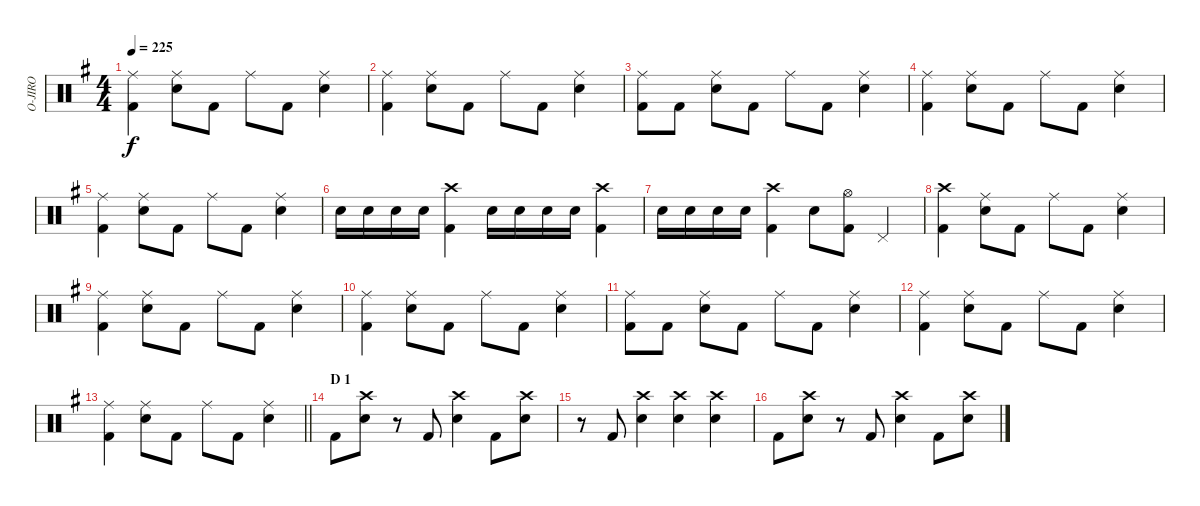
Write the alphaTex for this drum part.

\track ("O-JIRO" "O-JIRO") {instrument percussion}
\staff {score}
\articulation defaults
\ts (4 4)
\tempo 225
\clef neutral
\ks g
("Ride (middle)" "Kick (hit) 2").4{dy f} ("Ride (middle)" "Snare (hit) 2").8 "Kick (hit) 2".8 "Ride (middle)".8 "Kick (hit) 2".8 ("Ride (middle)" "Snare (hit) 2").4 |
("Ride (middle)" "Kick (hit) 2").4 ("Ride (middle)" "Snare (hit) 2").8 "Kick (hit) 2".8 "Ride (middle)".8 "Kick (hit) 2".8 ("Ride (middle)" "Snare (hit) 2").4 |
("Ride (middle)" "Kick (hit) 2").8 "Kick (hit) 2".8 ("Ride (middle)" "Snare (hit) 2").8 "Kick (hit) 2".8 "Ride (middle)".8 "Kick (hit) 2".8 ("Ride (middle)" "Snare (hit) 2").4 |
("Ride (middle)" "Kick (hit) 2").4 ("Ride (middle)" "Snare (hit) 2").8 "Kick (hit) 2".8 "Ride (middle)".8 "Kick (hit) 2".8 ("Ride (middle)" "Snare (hit) 2").4 |
("Ride (middle)" "Kick (hit) 2").4 ("Ride (middle)" "Snare (hit) 2").8 "Kick (hit) 2".8 "Ride (middle)".8 "Kick (hit) 2".8 ("Ride (middle)" "Snare (hit) 2").4 |
"Snare (hit) 2".16 "Snare (hit) 2".16 "Snare (hit) 2".16 "Snare (hit) 2".16 ("Crash high (hit)" "Kick (hit) 2").4 "Snare (hit) 2".16 "Snare (hit) 2".16 "Snare (hit) 2".16 "Snare (hit) 2".16 ("Crash high (hit)" "Kick (hit) 2").4 |
"Snare (hit) 2".16 "Snare (hit) 2".16 "Snare (hit) 2".16 "Snare (hit) 2".16 ("Crash high (hit)" "Kick (hit) 2").4 "Snare (hit) 2".8 ("Hi-Hat (open)" "Kick (hit) 2").8 "Pedal Hi-Hat (hit)".4 |
("Crash high (hit)" "Kick (hit) 2").4 ("Ride (middle)" "Snare (hit) 2").8 "Kick (hit) 2".8 "Ride (middle)".8 "Kick (hit) 2".8 ("Ride (middle)" "Snare (hit) 2").4 |
("Ride (middle)" "Kick (hit) 2").4 ("Ride (middle)" "Snare (hit) 2").8 "Kick (hit) 2".8 "Ride (middle)".8 "Kick (hit) 2".8 ("Ride (middle)" "Snare (hit) 2").4 |
("Ride (middle)" "Kick (hit) 2").4 ("Ride (middle)" "Snare (hit) 2").8 "Kick (hit) 2".8 "Ride (middle)".8 "Kick (hit) 2".8 ("Ride (middle)" "Snare (hit) 2").4 |
("Ride (middle)" "Kick (hit) 2").8 "Kick (hit) 2".8 ("Ride (middle)" "Snare (hit) 2").8 "Kick (hit) 2".8 "Ride (middle)".8 "Kick (hit) 2".8 ("Ride (middle)" "Snare (hit) 2").4 |
("Ride (middle)" "Kick (hit) 2").4 ("Ride (middle)" "Snare (hit) 2").8 "Kick (hit) 2".8 "Ride (middle)".8 "Kick (hit) 2".8 ("Ride (middle)" "Snare (hit) 2").4 |
\barLineRight lightlight
("Ride (middle)" "Kick (hit) 2").4 ("Ride (middle)" "Snare (hit) 2").8 "Kick (hit) 2".8 "Ride (middle)".8 "Kick (hit) 2".8 ("Ride (middle)" "Snare (hit) 2").4 |
\section ("" "D 1")
"Kick (hit) 2".8 ("Crash high (hit)" "Snare (hit) 2").8 r.8 "Kick (hit) 2".8 ("Crash high (hit)" "Snare (hit) 2").4 "Kick (hit) 2".8 ("Crash high (hit)" "Snare (hit) 2").8 |
r.8 "Kick (hit) 2".8 ("Crash high (hit)" "Snare (hit) 2").4 ("Crash high (hit)" "Snare (hit) 2").4 ("Crash high (hit)" "Snare (hit) 2").4 |
"Kick (hit) 2".8 ("Crash high (hit)" "Snare (hit) 2").8 r.8 "Kick (hit) 2".8 ("Crash high (hit)" "Snare (hit) 2").4 "Kick (hit) 2".8 ("Crash high (hit)" "Snare (hit) 2").8
